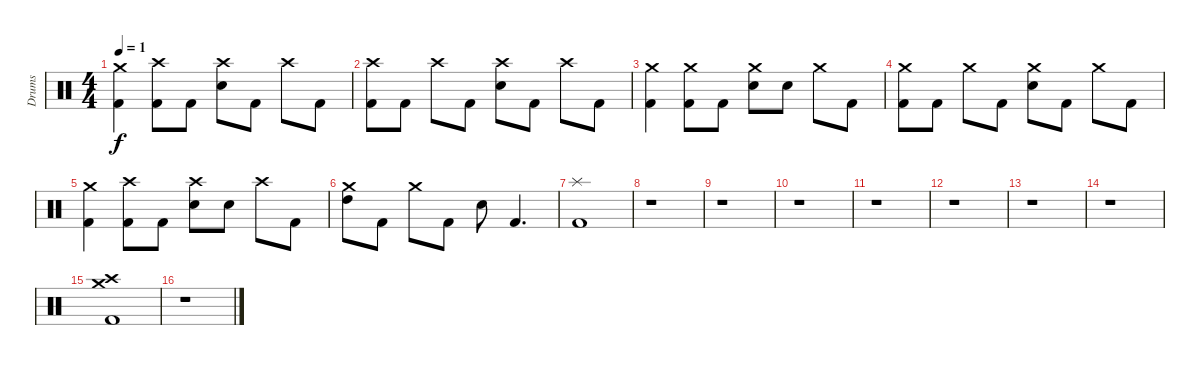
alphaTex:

\track ("Drums" "Drums") {instrument percussion}
\staff {score}
\articulation defaults
\ts (4 4)
\tempo 1
\clef neutral
\ks c
("Kick (hit) 2" "Crash medium (hit)").4{dy f} ("Crash high (hit)" "Kick (hit) 2").8 "Kick (hit) 2".8 ("Snare (hit) 2" "Crash high (hit)").8 "Kick (hit) 2".8 "Crash high (hit)".8 "Kick (hit) 2".8 |
("Crash high (hit)" "Kick (hit) 2").8 "Kick (hit) 2".8 "Crash high (hit)".8 "Kick (hit) 2".8 ("Snare (hit) 2" "Crash high (hit)").8 "Kick (hit) 2".8 "Crash high (hit)".8 "Kick (hit) 2".8 |
("Kick (hit) 2" "Crash medium (hit)").4 ("Kick (hit) 2" "Crash medium (hit)").8 "Kick (hit) 2".8 ("Snare (hit) 2" "Crash medium (hit)").8 "Snare (hit) 2".8 "Crash medium (hit)".8 "Kick (hit) 2".8 |
("Kick (hit) 2" "Crash medium (hit)").8 "Kick (hit) 2".8 "Crash medium (hit)".8 "Kick (hit) 2".8 ("Snare (hit) 2" "Crash medium (hit)").8 "Kick (hit) 2".8 "Crash medium (hit)".8 "Kick (hit) 2".8 |
("Kick (hit) 2" "Crash medium (hit)").4 ("Kick (hit) 2" "Crash high (hit)").8 "Kick (hit) 2".8 ("Snare (hit) 2" "Crash high (hit)").8 "Snare (hit) 2".8 "Crash high (hit)".8 "Kick (hit) 2".8 |
("Crash medium (hit)" "High Tom (hit)").8 "Kick (hit) 2".8 "Crash medium (hit)".8 "Kick (hit) 2".8 "Snare (hit) 2".8 "Kick (hit) 2".4{d} |
("Splash (hit)" "Kick (hit) 2").1 |
r.1 |
r.1 |
r.1 |
r.1 |
r.1 |
r.1 |
r.1 |
("Kick (hit) 2" "Crash medium (hit)" "Crash high (hit)").1 |
r.1
